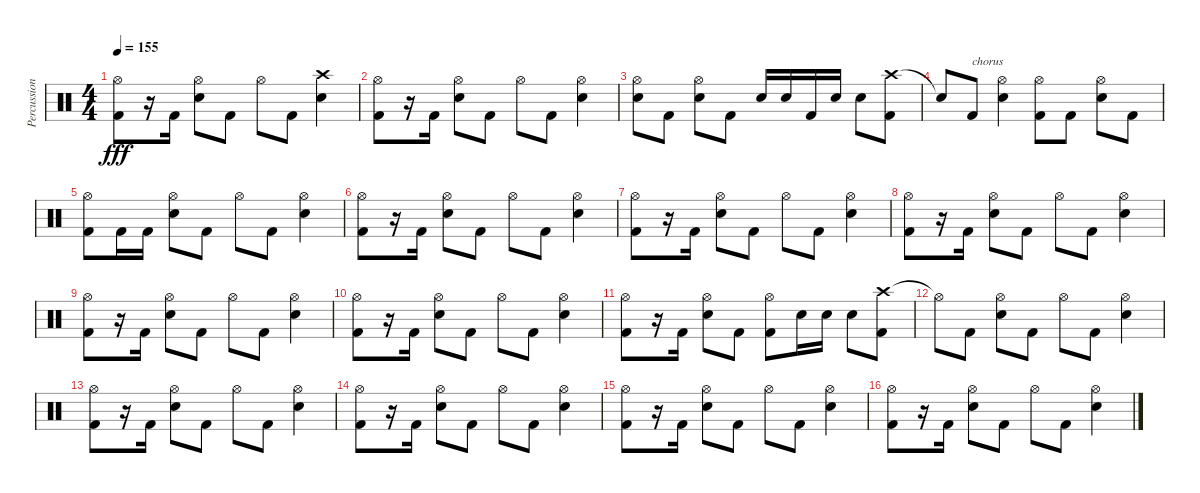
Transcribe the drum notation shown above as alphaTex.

\track ("Percussion" "Percussion") {instrument percussion}
\staff {score}
\articulation defaults
\ts (4 4)
\tempo 155
\clef neutral
\ks c
("Hi-Hat (open)" "Kick (hit) 2").8{dy fff} r.16 "Kick (hit) 2".16 ("Hi-Hat (open)" "Electric Snare (hit)").8 "Kick (hit) 2".8 "Hi-Hat (open)".8 "Kick (hit) 2".8 ("Crash high (hit)" "Electric Snare (hit)").4 |
("Hi-Hat (open)" "Kick (hit) 2").8 r.16 "Kick (hit) 2".16 ("Hi-Hat (open)" "Electric Snare (hit)").8 "Kick (hit) 2".8 "Hi-Hat (open)".8 "Kick (hit) 2".8 ("Hi-Hat (open)" "Electric Snare (hit)").4 |
("Hi-Hat (open)" "Electric Snare (hit)").8 "Kick (hit) 2".8 ("Hi-Hat (open)" "Electric Snare (hit)").8 "Kick (hit) 2".8 "Electric Snare (hit)".16 "Electric Snare (hit)".16 "Kick (hit) 2".16 "Electric Snare (hit)".16 "Electric Snare (hit)".8 ("Crash high (hit)" "Kick (hit) 2").8 |
"Snare (hit)"{t}.8 "Kick (hit) 2".8{txt "chorus"} ("Hi-Hat (open)" "Electric Snare (hit)").4 ("Hi-Hat (open)" "Kick (hit) 2").8 "Kick (hit) 2".8 ("Hi-Hat (open)" "Electric Snare (hit)").8 "Kick (hit) 2".8 |
("Hi-Hat (open)" "Kick (hit) 2").8 "Kick (hit) 2".16 "Kick (hit) 2".16 ("Hi-Hat (open)" "Electric Snare (hit)").8 "Kick (hit) 2".8 "Hi-Hat (open)".8 "Kick (hit) 2".8 ("Hi-Hat (open)" "Electric Snare (hit)").4 |
("Hi-Hat (open)" "Kick (hit) 2").8 r.16 "Kick (hit) 2".16 ("Hi-Hat (open)" "Electric Snare (hit)").8 "Kick (hit) 2".8 "Hi-Hat (open)".8 "Kick (hit) 2".8 ("Hi-Hat (open)" "Electric Snare (hit)").4 |
("Hi-Hat (open)" "Kick (hit) 2").8 r.16 "Kick (hit) 2".16 ("Hi-Hat (open)" "Electric Snare (hit)").8 "Kick (hit) 2".8 "Hi-Hat (open)".8 "Kick (hit) 2".8 ("Hi-Hat (open)" "Electric Snare (hit)").4 |
("Hi-Hat (open)" "Kick (hit) 2").8 r.16 "Kick (hit) 2".16 ("Hi-Hat (open)" "Electric Snare (hit)").8 "Kick (hit) 2".8 "Hi-Hat (open)".8 "Kick (hit) 2".8 ("Hi-Hat (open)" "Electric Snare (hit)").4 |
("Hi-Hat (open)" "Kick (hit) 2").8 r.16 "Kick (hit) 2".16 ("Hi-Hat (open)" "Electric Snare (hit)").8 "Kick (hit) 2".8 "Hi-Hat (open)".8 "Kick (hit) 2".8 ("Hi-Hat (open)" "Electric Snare (hit)").4 |
("Hi-Hat (open)" "Kick (hit) 2").8 r.16 "Kick (hit) 2".16 ("Hi-Hat (open)" "Electric Snare (hit)").8 "Kick (hit) 2".8 "Hi-Hat (open)".8 "Kick (hit) 2".8 ("Hi-Hat (open)" "Electric Snare (hit)").4 |
("Hi-Hat (open)" "Kick (hit) 2").8 r.16 "Kick (hit) 2".16 ("Hi-Hat (open)" "Electric Snare (hit)").8 "Kick (hit) 2".8 ("Hi-Hat (open)" "Kick (hit) 2").8 "Electric Snare (hit)".16 "Electric Snare (hit)".16 "Electric Snare (hit)".8 ("Crash high (hit)" "Kick (hit) 2").8 |
"Hi-Hat (open)"{t}.8 "Kick (hit) 2".8 ("Hi-Hat (open)" "Electric Snare (hit)").8 "Kick (hit) 2".8 "Hi-Hat (open)".8 "Kick (hit) 2".8 ("Hi-Hat (open)" "Electric Snare (hit)").4 |
("Hi-Hat (open)" "Kick (hit) 2").8 r.16 "Kick (hit) 2".16 ("Hi-Hat (open)" "Electric Snare (hit)").8 "Kick (hit) 2".8 "Hi-Hat (open)".8 "Kick (hit) 2".8 ("Hi-Hat (open)" "Electric Snare (hit)").4 |
("Hi-Hat (open)" "Kick (hit) 2").8 r.16 "Kick (hit) 2".16 ("Hi-Hat (open)" "Electric Snare (hit)").8 "Kick (hit) 2".8 "Hi-Hat (open)".8 "Kick (hit) 2".8 ("Hi-Hat (open)" "Electric Snare (hit)").4 |
("Hi-Hat (open)" "Kick (hit) 2").8 r.16 "Kick (hit) 2".16 ("Hi-Hat (open)" "Electric Snare (hit)").8 "Kick (hit) 2".8 "Hi-Hat (open)".8 "Kick (hit) 2".8 ("Hi-Hat (open)" "Electric Snare (hit)").4 |
("Hi-Hat (open)" "Kick (hit) 2").8 r.16 "Kick (hit) 2".16 ("Hi-Hat (open)" "Electric Snare (hit)").8 "Kick (hit) 2".8 "Hi-Hat (open)".8 "Kick (hit) 2".8 ("Hi-Hat (open)" "Electric Snare (hit)").4
